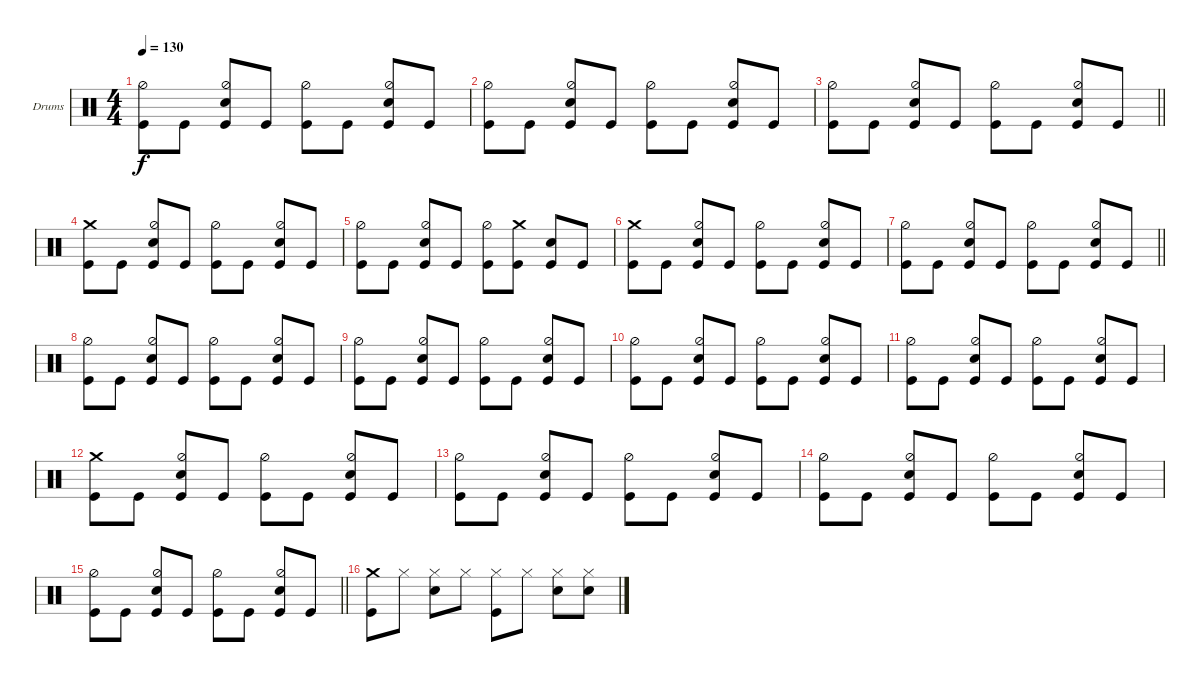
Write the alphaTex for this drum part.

\defaultSystemsLayout 4
\bracketExtendMode groupsimilarinstruments
\firstSystemTrackNameOrientation horizontal
\otherSystemsTrackNameOrientation horizontal
\track ("Drums" "Drums") {instrument percussion}
\staff {score}
\articulation defaults
\ts (4 4)
\tempo 130
\clef neutral
\ks aminor
("Kick (hit)" "Hi-Hat (half)").8{dy f} "Kick (hit)".8 ("Snare (hit) 2" "Hi-Hat (half)" "Kick (hit)").8 "Kick (hit)".8 ("Kick (hit)" "Hi-Hat (half)").8 "Kick (hit)".8 ("Snare (hit) 2" "Hi-Hat (half)" "Kick (hit)").8 "Kick (hit)".8 |
("Kick (hit)" "Hi-Hat (half)").8 "Kick (hit)".8 ("Snare (hit) 2" "Hi-Hat (half)" "Kick (hit)").8 "Kick (hit)".8 ("Kick (hit)" "Hi-Hat (half)").8 "Kick (hit)".8 ("Snare (hit) 2" "Hi-Hat (half)" "Kick (hit)").8 "Kick (hit)".8 |
\barLineRight lightlight
("Kick (hit)" "Hi-Hat (half)").8 "Kick (hit)".8 ("Snare (hit) 2" "Hi-Hat (half)" "Kick (hit)").8 "Kick (hit)".8 ("Kick (hit)" "Hi-Hat (half)").8 "Kick (hit)".8 ("Snare (hit) 2" "Hi-Hat (half)" "Kick (hit)").8 "Kick (hit)".8 |
("Kick (hit)" "Crash medium (hit)").8 "Kick (hit)".8 ("Snare (hit) 2" "Hi-Hat (half)" "Kick (hit)").8 "Kick (hit)".8 ("Kick (hit)" "Hi-Hat (half)").8 "Kick (hit)".8 ("Snare (hit) 2" "Hi-Hat (half)" "Kick (hit)").8 "Kick (hit)".8 |
("Kick (hit)" "Hi-Hat (half)").8 "Kick (hit)".8 ("Snare (hit) 2" "Hi-Hat (half)" "Kick (hit)").8 "Kick (hit)".8 ("Kick (hit)" "Hi-Hat (half)").8 ("Kick (hit)" "Crash medium (hit)").8 ("Snare (hit) 2" "Kick (hit)").8 "Kick (hit)".8 |
("Kick (hit)" "Crash medium (hit)").8 "Kick (hit)".8 ("Snare (hit) 2" "Hi-Hat (half)" "Kick (hit)").8 "Kick (hit)".8 ("Kick (hit)" "Hi-Hat (half)").8 "Kick (hit)".8 ("Snare (hit) 2" "Hi-Hat (half)" "Kick (hit)").8 "Kick (hit)".8 |
\barLineRight lightlight
("Kick (hit)" "Hi-Hat (half)").8 "Kick (hit)".8 ("Snare (hit) 2" "Hi-Hat (half)" "Kick (hit)").8 "Kick (hit)".8 ("Kick (hit)" "Hi-Hat (half)").8 "Kick (hit)".8 ("Snare (hit) 2" "Hi-Hat (half)" "Kick (hit)").8 "Kick (hit)".8 |
("Kick (hit)" "Hi-Hat (half)").8 "Kick (hit)".8 ("Snare (hit) 2" "Hi-Hat (half)" "Kick (hit)").8 "Kick (hit)".8 ("Kick (hit)" "Hi-Hat (half)").8 "Kick (hit)".8 ("Snare (hit) 2" "Hi-Hat (half)" "Kick (hit)").8 "Kick (hit)".8 |
("Kick (hit)" "Hi-Hat (half)").8 "Kick (hit)".8 ("Snare (hit) 2" "Hi-Hat (half)" "Kick (hit)").8 "Kick (hit)".8 ("Kick (hit)" "Hi-Hat (half)").8 "Kick (hit)".8 ("Snare (hit) 2" "Hi-Hat (half)" "Kick (hit)").8 "Kick (hit)".8 |
("Kick (hit)" "Hi-Hat (half)").8 "Kick (hit)".8 ("Snare (hit) 2" "Hi-Hat (half)" "Kick (hit)").8 "Kick (hit)".8 ("Kick (hit)" "Hi-Hat (half)").8 "Kick (hit)".8 ("Snare (hit) 2" "Hi-Hat (half)" "Kick (hit)").8 "Kick (hit)".8 |
("Kick (hit)" "Hi-Hat (half)").8 "Kick (hit)".8 ("Snare (hit) 2" "Hi-Hat (half)" "Kick (hit)").8 "Kick (hit)".8 ("Kick (hit)" "Hi-Hat (half)").8 "Kick (hit)".8 ("Snare (hit) 2" "Hi-Hat (half)" "Kick (hit)").8 "Kick (hit)".8 |
("Kick (hit)" "Crash medium (hit)").8 "Kick (hit)".8 ("Snare (hit) 2" "Hi-Hat (half)" "Kick (hit)").8 "Kick (hit)".8 ("Kick (hit)" "Hi-Hat (half)").8 "Kick (hit)".8 ("Snare (hit) 2" "Hi-Hat (half)" "Kick (hit)").8 "Kick (hit)".8 |
("Kick (hit)" "Hi-Hat (half)").8 "Kick (hit)".8 ("Snare (hit) 2" "Hi-Hat (half)" "Kick (hit)").8 "Kick (hit)".8 ("Kick (hit)" "Hi-Hat (half)").8 "Kick (hit)".8 ("Snare (hit) 2" "Hi-Hat (half)" "Kick (hit)").8 "Kick (hit)".8 |
("Kick (hit)" "Hi-Hat (half)").8 "Kick (hit)".8 ("Snare (hit) 2" "Hi-Hat (half)" "Kick (hit)").8 "Kick (hit)".8 ("Kick (hit)" "Hi-Hat (half)").8 "Kick (hit)".8 ("Snare (hit) 2" "Hi-Hat (half)" "Kick (hit)").8 "Kick (hit)".8 |
\barLineRight lightlight
("Kick (hit)" "Hi-Hat (half)").8 "Kick (hit)".8 ("Snare (hit) 2" "Hi-Hat (half)" "Kick (hit)").8 "Kick (hit)".8 ("Kick (hit)" "Hi-Hat (half)").8 "Kick (hit)".8 ("Snare (hit) 2" "Hi-Hat (half)" "Kick (hit)").8 "Kick (hit)".8 |
("Kick (hit)" "Crash medium (hit)").8 "Hi-Hat (closed)".8 ("Snare (hit) 2" "Hi-Hat (closed)").8 "Hi-Hat (closed)".8 ("Kick (hit)" "Hi-Hat (closed)").8 "Hi-Hat (closed)".8 ("Snare (hit) 2" "Hi-Hat (closed)").8 ("Snare (hit) 2" "Hi-Hat (closed)").8
